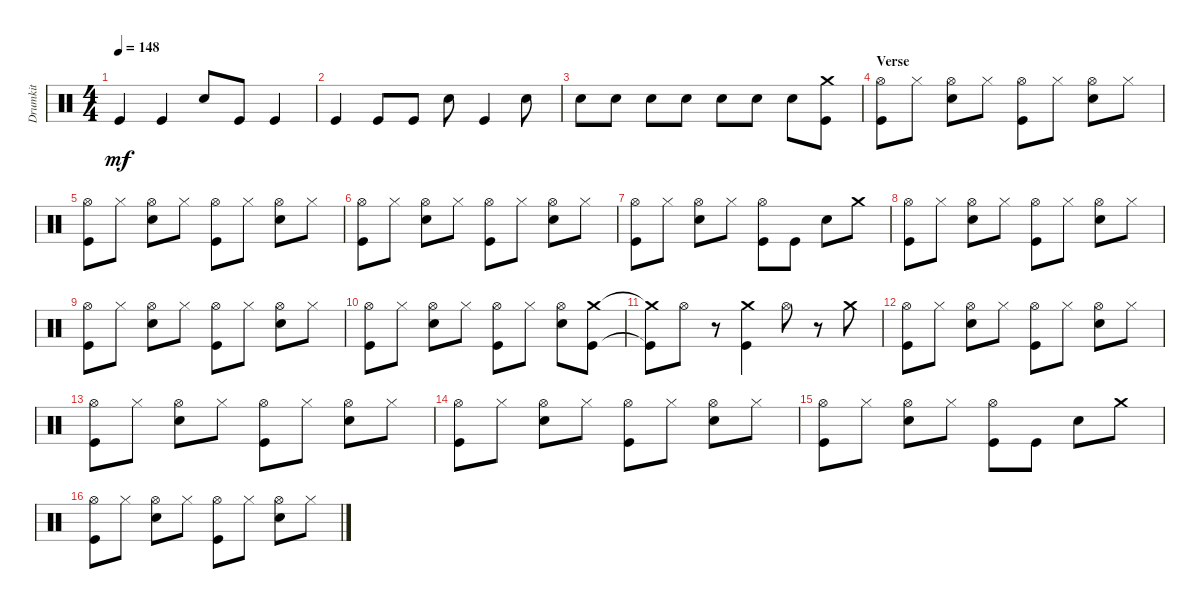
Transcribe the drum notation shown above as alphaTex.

\track ("Drumkit" "Drumkit") {instrument percussion}
\staff {score}
\articulation defaults
\ts (4 4)
\tempo 148
\clef neutral
\ks c "Kick (hit)".4{dy mf} "Kick (hit)".4 "Snare (hit) 2".8 "Kick (hit)".8 "Kick (hit)".4
|
"Kick (hit)".4 "Kick (hit)".8 "Kick (hit)".8 "Snare (hit) 2".8 "Kick (hit)".4 "Snare (hit) 2".8 |
"Snare (hit) 2".8 "Snare (hit) 2".8 "Snare (hit) 2".8 "Snare (hit) 2".8 "Snare (hit) 2".8 "Snare (hit) 2".8 "Snare (hit) 2".8 ("Kick (hit)" "Crash medium (hit)").8 |
\section ("" "Verse")
("Kick (hit)" "Hi-Hat (open)").8 "Hi-Hat (closed)".8 ("Snare (hit) 2" "Hi-Hat (open)").8 "Hi-Hat (closed)".8 ("Kick (hit)" "Hi-Hat (open)").8 "Hi-Hat (closed)".8 ("Snare (hit) 2" "Hi-Hat (open)").8 "Hi-Hat (closed)".8 |
("Kick (hit)" "Hi-Hat (open)").8 "Hi-Hat (closed)".8 ("Snare (hit) 2" "Hi-Hat (open)").8 "Hi-Hat (closed)".8 ("Kick (hit)" "Hi-Hat (open)").8 "Hi-Hat (closed)".8 ("Snare (hit) 2" "Hi-Hat (open)").8 "Hi-Hat (closed)".8 |
("Kick (hit)" "Hi-Hat (open)").8 "Hi-Hat (closed)".8 ("Snare (hit) 2" "Hi-Hat (open)").8 "Hi-Hat (closed)".8 ("Kick (hit)" "Hi-Hat (open)").8 "Hi-Hat (closed)".8 ("Snare (hit) 2" "Hi-Hat (open)").8 "Hi-Hat (closed)".8 |
("Kick (hit)" "Hi-Hat (open)").8 "Hi-Hat (closed)".8 ("Snare (hit) 2" "Hi-Hat (open)").8 "Hi-Hat (closed)".8 ("Kick (hit)" "Hi-Hat (open)").8 "Kick (hit)".8 "Snare (hit) 2".8 "Crash medium (hit)".8 |
("Kick (hit)" "Hi-Hat (open)").8 "Hi-Hat (closed)".8 ("Snare (hit) 2" "Hi-Hat (open)").8 "Hi-Hat (closed)".8 ("Kick (hit)" "Hi-Hat (open)").8 "Hi-Hat (closed)".8 ("Snare (hit) 2" "Hi-Hat (open)").8 "Hi-Hat (closed)".8 |
("Kick (hit)" "Hi-Hat (open)").8 "Hi-Hat (closed)".8 ("Snare (hit) 2" "Hi-Hat (open)").8 "Hi-Hat (closed)".8 ("Kick (hit)" "Hi-Hat (open)").8 "Hi-Hat (closed)".8 ("Snare (hit) 2" "Hi-Hat (open)").8 "Hi-Hat (closed)".8 |
("Kick (hit)" "Hi-Hat (open)").8 "Hi-Hat (closed)".8 ("Snare (hit) 2" "Hi-Hat (open)").8 "Hi-Hat (closed)".8 ("Kick (hit)" "Hi-Hat (open)").8 "Hi-Hat (closed)".8 ("Snare (hit) 2" "Hi-Hat (open)").8 ("Crash medium (hit)" "Kick (hit)").8 |
("Crash medium (hit)"{t} "Kick (hit)"{t}).8 "Hi-Hat (open)".8 r.8 ("Crash medium (hit)" "Kick (hit)").4 "Hi-Hat (open)".8 r.8 "Crash medium (hit)".8 |
("Kick (hit)" "Hi-Hat (open)").8 "Hi-Hat (closed)".8 ("Snare (hit) 2" "Hi-Hat (open)").8 "Hi-Hat (closed)".8 ("Kick (hit)" "Hi-Hat (open)").8 "Hi-Hat (closed)".8 ("Snare (hit) 2" "Hi-Hat (open)").8 "Hi-Hat (closed)".8 |
("Kick (hit)" "Hi-Hat (open)").8 "Hi-Hat (closed)".8 ("Snare (hit) 2" "Hi-Hat (open)").8 "Hi-Hat (closed)".8 ("Kick (hit)" "Hi-Hat (open)").8 "Hi-Hat (closed)".8 ("Snare (hit) 2" "Hi-Hat (open)").8 "Hi-Hat (closed)".8 |
("Kick (hit)" "Hi-Hat (open)").8 "Hi-Hat (closed)".8 ("Snare (hit) 2" "Hi-Hat (open)").8 "Hi-Hat (closed)".8 ("Kick (hit)" "Hi-Hat (open)").8 "Hi-Hat (closed)".8 ("Snare (hit) 2" "Hi-Hat (open)").8 "Hi-Hat (closed)".8 |
("Kick (hit)" "Hi-Hat (open)").8 "Hi-Hat (closed)".8 ("Snare (hit) 2" "Hi-Hat (open)").8 "Hi-Hat (closed)".8 ("Kick (hit)" "Hi-Hat (open)").8 "Kick (hit)".8 "Snare (hit) 2".8 "Crash medium (hit)".8 |
("Kick (hit)" "Hi-Hat (open)").8 "Hi-Hat (closed)".8 ("Snare (hit) 2" "Hi-Hat (open)").8 "Hi-Hat (closed)".8 ("Kick (hit)" "Hi-Hat (open)").8 "Hi-Hat (closed)".8 ("Snare (hit) 2" "Hi-Hat (open)").8 "Hi-Hat (closed)".8
